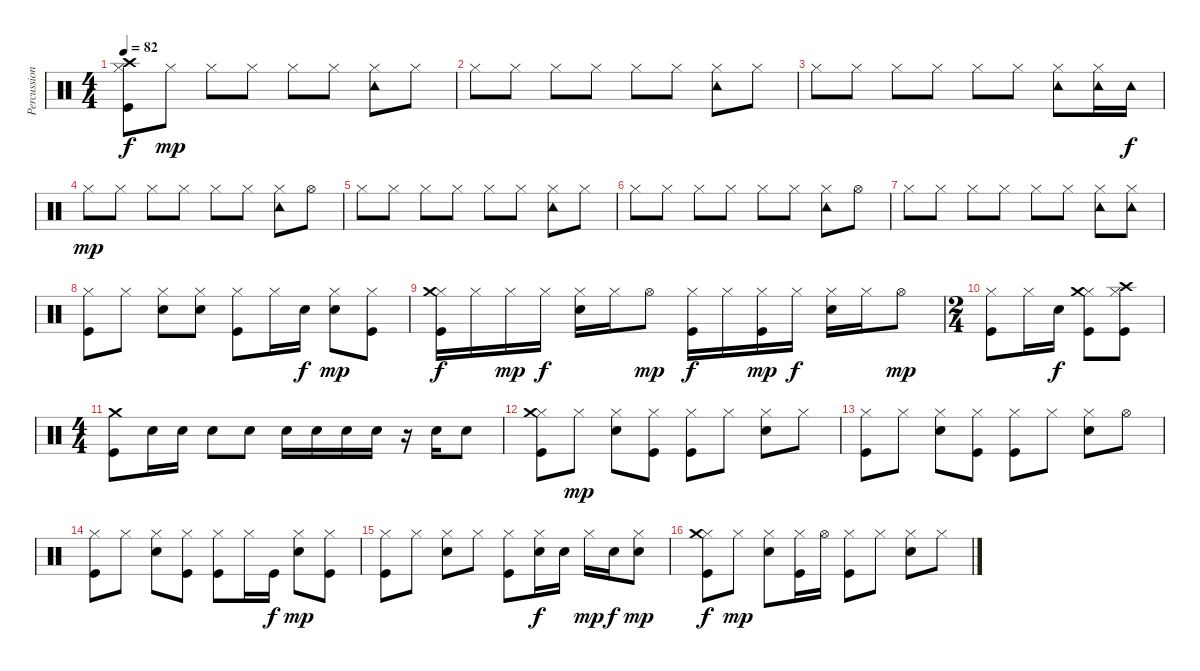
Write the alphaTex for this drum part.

\track ("Percussion" "Percussion") {instrument percussion}
\staff {score}
\articulation defaults
\ts (4 4)
\tempo 82
\clef neutral
\ks c
("Kick (hit)" "Hi-Hat (closed)" "Crash high (hit)").8{dy f} "Hi-Hat (closed)".8{dy mp} "Hi-Hat (closed)".8 "Hi-Hat (closed)".8 "Hi-Hat (closed)".8 "Hi-Hat (closed)".8 ("Tambourine (hit)" "Hi-Hat (closed)").8 "Hi-Hat (closed)".8 |
"Hi-Hat (closed)".8 "Hi-Hat (closed)".8 "Hi-Hat (closed)".8 "Hi-Hat (closed)".8 "Hi-Hat (closed)".8 "Hi-Hat (closed)".8 ("Tambourine (hit)" "Hi-Hat (closed)").8 "Hi-Hat (closed)".8 |
"Hi-Hat (closed)".8 "Hi-Hat (closed)".8 "Hi-Hat (closed)".8 "Hi-Hat (closed)".8 "Hi-Hat (closed)".8 "Hi-Hat (closed)".8 ("Tambourine (hit)" "Hi-Hat (closed)").8 ("Tambourine (hit)" "Hi-Hat (closed)").16 "Tambourine (hit)".16{dy f} |
"Hi-Hat (closed)".8{dy mp} "Hi-Hat (closed)".8 "Hi-Hat (closed)".8 "Hi-Hat (closed)".8 "Hi-Hat (closed)".8 "Hi-Hat (closed)".8 ("Tambourine (hit)" "Hi-Hat (closed)").8 "Hi-Hat (open)".8 |
"Hi-Hat (closed)".8 "Hi-Hat (closed)".8 "Hi-Hat (closed)".8 "Hi-Hat (closed)".8 "Hi-Hat (closed)".8 "Hi-Hat (closed)".8 ("Tambourine (hit)" "Hi-Hat (closed)").8 "Hi-Hat (closed)".8 |
"Hi-Hat (closed)".8 "Hi-Hat (closed)".8 "Hi-Hat (closed)".8 "Hi-Hat (closed)".8 "Hi-Hat (closed)".8 "Hi-Hat (closed)".8 ("Tambourine (hit)" "Hi-Hat (closed)").8 "Hi-Hat (open)".8 |
"Hi-Hat (closed)".8 "Hi-Hat (closed)".8 "Hi-Hat (closed)".8 "Hi-Hat (closed)".8 "Hi-Hat (closed)".8 "Hi-Hat (closed)".8 ("Tambourine (hit)" "Hi-Hat (closed)").8 ("Tambourine (hit)" "Hi-Hat (closed)").8 |
("Kick (hit)" "Hi-Hat (closed)").8 "Hi-Hat (closed)".8 ("Electric Snare (hit)" "Hi-Hat (closed)").8 ("Electric Snare (hit)" "Hi-Hat (closed)").8 ("Kick (hit)" "Hi-Hat (closed)").8 "Hi-Hat (closed)".16 "Electric Snare (hit)".16{dy f} ("Electric Snare (hit)" "Hi-Hat (closed)").8{dy mp} ("Kick (hit)" "Hi-Hat (closed)").8 |
("Kick (hit)" "Hi-Hat (closed)" "Crash medium (hit)").16{dy f} "Hi-Hat (closed)".16 "Hi-Hat (closed)".16{dy mp} "Hi-Hat (closed)".16{dy f} ("Electric Snare (hit)" "Hi-Hat (closed)").16 "Hi-Hat (closed)".16 "Hi-Hat (open)".8{dy mp} ("Kick (hit)" "Hi-Hat (closed)").16{dy f} "Hi-Hat (closed)".16 ("Kick (hit)" "Hi-Hat (closed)").16{dy mp} "Hi-Hat (closed)".16{dy f} ("Electric Snare (hit)" "Hi-Hat (closed)").16 "Hi-Hat (closed)".16 "Hi-Hat (open)".8{dy mp} |
\ts (2 4)
("Kick (hit)" "Hi-Hat (closed)").8 "Hi-Hat (closed)".16 "Electric Snare (hit)".16{dy f} ("Kick (hit)" "Hi-Hat (closed)" "Crash medium (hit)").8 ("Kick (hit)" "Hi-Hat (closed)" "Crash high (hit)").8 |
\ts (4 4)
("Kick (hit)" "Crash medium (hit)").8 "Electric Snare (hit)".16 "Electric Snare (hit)".16 "Electric Snare (hit)".8 "Electric Snare (hit)".8 "Electric Snare (hit)".16 "Electric Snare (hit)".16 "Electric Snare (hit)".16 "Electric Snare (hit)".16 r.16 "Electric Snare (hit)".16 "Electric Snare (hit)".8 |
("Kick (hit)" "Hi-Hat (closed)" "Crash medium (hit)").8 "Hi-Hat (closed)".8{dy mp} ("Electric Snare (hit)" "Hi-Hat (closed)").8 ("Kick (hit)" "Hi-Hat (closed)").8 ("Kick (hit)" "Hi-Hat (closed)").8 "Hi-Hat (closed)".8 ("Electric Snare (hit)" "Hi-Hat (closed)").8 "Hi-Hat (closed)".8 |
("Kick (hit)" "Hi-Hat (closed)").8 "Hi-Hat (closed)".8 ("Electric Snare (hit)" "Hi-Hat (closed)").8 ("Kick (hit)" "Hi-Hat (closed)").8 ("Kick (hit)" "Hi-Hat (closed)").8 "Hi-Hat (closed)".8 ("Electric Snare (hit)" "Hi-Hat (closed)").8 "Hi-Hat (open)".8 |
("Kick (hit)" "Hi-Hat (closed)").8 "Hi-Hat (closed)".8 ("Electric Snare (hit)" "Hi-Hat (closed)").8 ("Kick (hit)" "Hi-Hat (closed)").8 ("Kick (hit)" "Hi-Hat (closed)").8 "Hi-Hat (closed)".16 "Kick (hit)".16{dy f} ("Electric Snare (hit)" "Hi-Hat (closed)").8{dy mp} ("Kick (hit)" "Hi-Hat (closed)").8 |
("Kick (hit)" "Hi-Hat (closed)").8 "Hi-Hat (closed)".8 ("Electric Snare (hit)" "Hi-Hat (closed)").8 "Hi-Hat (closed)".8 ("Kick (hit)" "Hi-Hat (closed)").8 ("Electric Snare (hit)" "Hi-Hat (closed)").16{dy f} "Electric Snare (hit)".16 "Hi-Hat (closed)".16{dy mp} "Electric Snare (hit)".16{dy f} ("Electric Snare (hit)" "Hi-Hat (closed)").8{dy mp} |
("Kick (hit)" "Hi-Hat (closed)" "Crash medium (hit)").8{dy f} "Hi-Hat (closed)".8{dy mp} ("Electric Snare (hit)" "Hi-Hat (closed)").8 ("Kick (hit)" "Hi-Hat (closed)").16 "Hi-Hat (open)".16 ("Kick (hit)" "Hi-Hat (closed)").8 "Hi-Hat (closed)".8 ("Electric Snare (hit)" "Hi-Hat (closed)").8 "Hi-Hat (closed)".8
